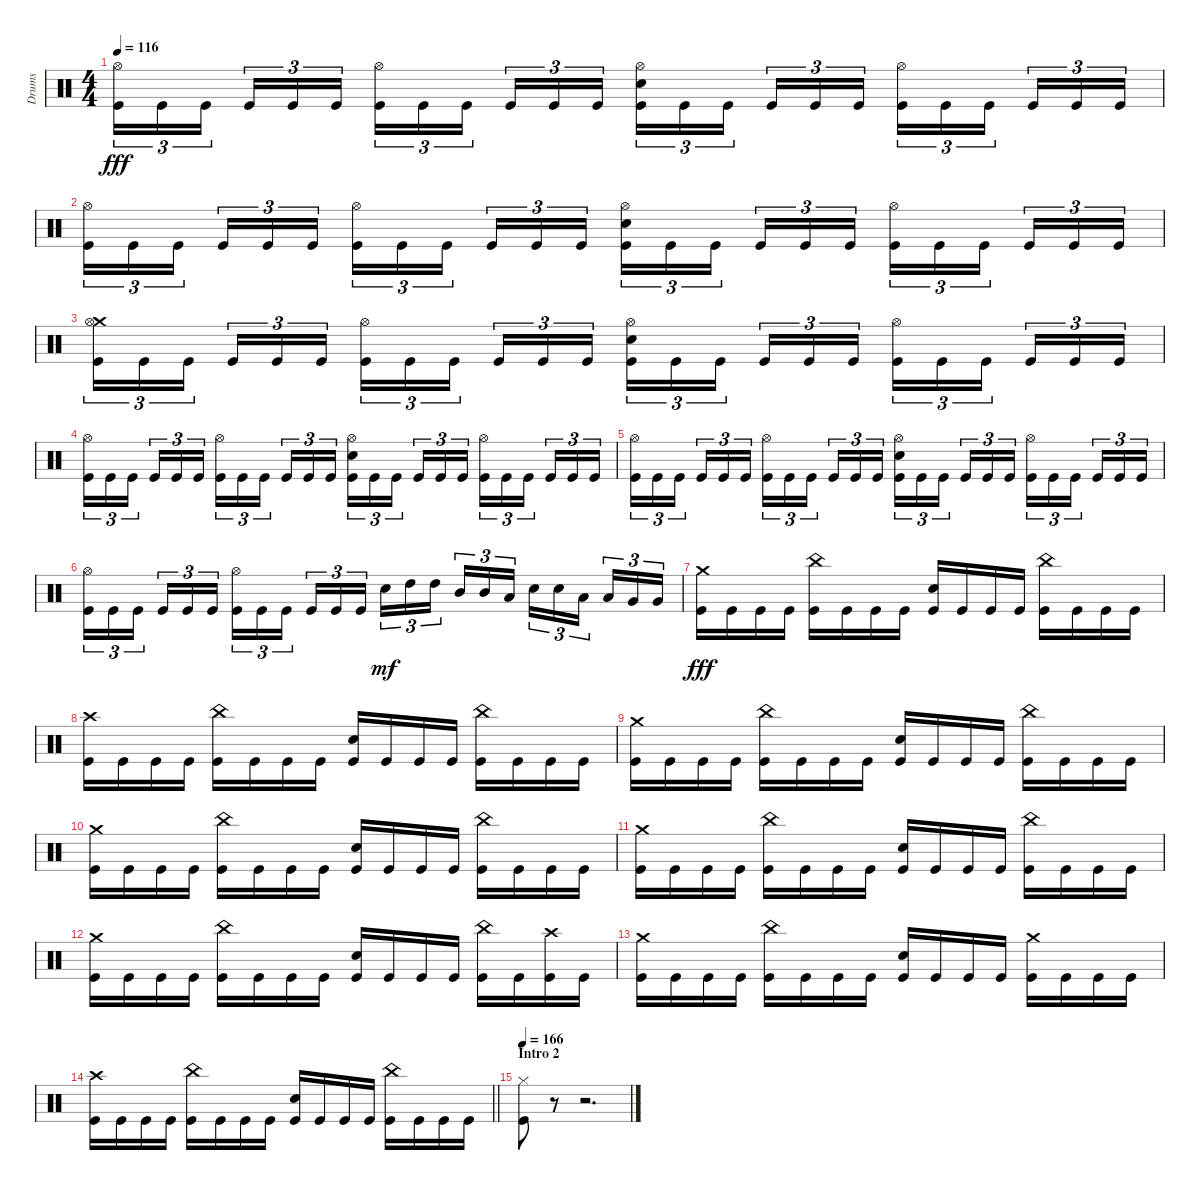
\track ("Drums" "Drums") {instrument percussion}
\staff {score}
\articulation defaults
\ts (4 4)
\tempo 116
\clef neutral
\ks c
("Hi-Hat (open)" "Kick (hit)").16{tu (3 2) dy fff} "Kick (hit)".16{tu (3 2)} "Kick (hit)".16{tu (3 2) beam splitsecondary} "Kick (hit)".16{tu (3 2)} "Kick (hit)".16{tu (3 2)} "Kick (hit)".16{tu (3 2)} ("Hi-Hat (open)" "Kick (hit)").16{tu (3 2)} "Kick (hit)".16{tu (3 2)} "Kick (hit)".16{tu (3 2) beam splitsecondary} "Kick (hit)".16{tu (3 2)} "Kick (hit)".16{tu (3 2)} "Kick (hit)".16{tu (3 2)} ("Hi-Hat (open)" "Electric Snare (hit)" "Kick (hit)").16{tu (3 2)} "Kick (hit)".16{tu (3 2)} "Kick (hit)".16{tu (3 2) beam splitsecondary} "Kick (hit)".16{tu (3 2)} "Kick (hit)".16{tu (3 2)} "Kick (hit)".16{tu (3 2)} ("Hi-Hat (open)" "Kick (hit)").16{tu (3 2)} "Kick (hit)".16{tu (3 2)} "Kick (hit)".16{tu (3 2) beam splitsecondary} "Kick (hit)".16{tu (3 2)} "Kick (hit)".16{tu (3 2)} "Kick (hit)".16{tu (3 2)} |
("Hi-Hat (open)" "Kick (hit)").16{tu (3 2)} "Kick (hit)".16{tu (3 2)} "Kick (hit)".16{tu (3 2) beam splitsecondary} "Kick (hit)".16{tu (3 2)} "Kick (hit)".16{tu (3 2)} "Kick (hit)".16{tu (3 2)} ("Hi-Hat (open)" "Kick (hit)").16{tu (3 2)} "Kick (hit)".16{tu (3 2)} "Kick (hit)".16{tu (3 2) beam splitsecondary} "Kick (hit)".16{tu (3 2)} "Kick (hit)".16{tu (3 2)} "Kick (hit)".16{tu (3 2)} ("Hi-Hat (open)" "Electric Snare (hit)" "Kick (hit)").16{tu (3 2)} "Kick (hit)".16{tu (3 2)} "Kick (hit)".16{tu (3 2) beam splitsecondary} "Kick (hit)".16{tu (3 2)} "Kick (hit)".16{tu (3 2)} "Kick (hit)".16{tu (3 2)} ("Hi-Hat (open)" "Kick (hit)").16{tu (3 2)} "Kick (hit)".16{tu (3 2)} "Kick (hit)".16{tu (3 2) beam splitsecondary} "Kick (hit)".16{tu (3 2)} "Kick (hit)".16{tu (3 2)} "Kick (hit)".16{tu (3 2)} |
("Crash medium (hit)" "Hi-Hat (open)" "Kick (hit)").16{tu (3 2)} "Kick (hit)".16{tu (3 2)} "Kick (hit)".16{tu (3 2) beam splitsecondary} "Kick (hit)".16{tu (3 2)} "Kick (hit)".16{tu (3 2)} "Kick (hit)".16{tu (3 2)} ("Hi-Hat (open)" "Kick (hit)").16{tu (3 2)} "Kick (hit)".16{tu (3 2)} "Kick (hit)".16{tu (3 2) beam splitsecondary} "Kick (hit)".16{tu (3 2)} "Kick (hit)".16{tu (3 2)} "Kick (hit)".16{tu (3 2)} ("Hi-Hat (open)" "Electric Snare (hit)" "Kick (hit)").16{tu (3 2)} "Kick (hit)".16{tu (3 2)} "Kick (hit)".16{tu (3 2) beam splitsecondary} "Kick (hit)".16{tu (3 2)} "Kick (hit)".16{tu (3 2)} "Kick (hit)".16{tu (3 2)} ("Hi-Hat (open)" "Kick (hit)").16{tu (3 2)} "Kick (hit)".16{tu (3 2)} "Kick (hit)".16{tu (3 2) beam splitsecondary} "Kick (hit)".16{tu (3 2)} "Kick (hit)".16{tu (3 2)} "Kick (hit)".16{tu (3 2)} |
("Hi-Hat (open)" "Kick (hit)").16{tu (3 2)} "Kick (hit)".16{tu (3 2)} "Kick (hit)".16{tu (3 2) beam splitsecondary} "Kick (hit)".16{tu (3 2)} "Kick (hit)".16{tu (3 2)} "Kick (hit)".16{tu (3 2)} ("Hi-Hat (open)" "Kick (hit)").16{tu (3 2)} "Kick (hit)".16{tu (3 2)} "Kick (hit)".16{tu (3 2) beam splitsecondary} "Kick (hit)".16{tu (3 2)} "Kick (hit)".16{tu (3 2)} "Kick (hit)".16{tu (3 2)} ("Hi-Hat (open)" "Electric Snare (hit)" "Kick (hit)").16{tu (3 2)} "Kick (hit)".16{tu (3 2)} "Kick (hit)".16{tu (3 2) beam splitsecondary} "Kick (hit)".16{tu (3 2)} "Kick (hit)".16{tu (3 2)} "Kick (hit)".16{tu (3 2)} ("Hi-Hat (open)" "Kick (hit)").16{tu (3 2)} "Kick (hit)".16{tu (3 2)} "Kick (hit)".16{tu (3 2) beam splitsecondary} "Kick (hit)".16{tu (3 2)} "Kick (hit)".16{tu (3 2)} "Kick (hit)".16{tu (3 2)} |
("Hi-Hat (open)" "Kick (hit)").16{tu (3 2)} "Kick (hit)".16{tu (3 2)} "Kick (hit)".16{tu (3 2) beam splitsecondary} "Kick (hit)".16{tu (3 2)} "Kick (hit)".16{tu (3 2)} "Kick (hit)".16{tu (3 2)} ("Hi-Hat (open)" "Kick (hit)").16{tu (3 2)} "Kick (hit)".16{tu (3 2)} "Kick (hit)".16{tu (3 2) beam splitsecondary} "Kick (hit)".16{tu (3 2)} "Kick (hit)".16{tu (3 2)} "Kick (hit)".16{tu (3 2)} ("Hi-Hat (open)" "Electric Snare (hit)" "Kick (hit)").16{tu (3 2)} "Kick (hit)".16{tu (3 2)} "Kick (hit)".16{tu (3 2) beam splitsecondary} "Kick (hit)".16{tu (3 2)} "Kick (hit)".16{tu (3 2)} "Kick (hit)".16{tu (3 2)} ("Hi-Hat (open)" "Kick (hit)").16{tu (3 2)} "Kick (hit)".16{tu (3 2)} "Kick (hit)".16{tu (3 2) beam splitsecondary} "Kick (hit)".16{tu (3 2)} "Kick (hit)".16{tu (3 2)} "Kick (hit)".16{tu (3 2)} |
("Hi-Hat (open)" "Kick (hit)").16{tu (3 2)} "Kick (hit)".16{tu (3 2)} "Kick (hit)".16{tu (3 2) beam splitsecondary} "Kick (hit)".16{tu (3 2)} "Kick (hit)".16{tu (3 2)} "Kick (hit)".16{tu (3 2)} ("Hi-Hat (open)" "Kick (hit)").16{tu (3 2)} "Kick (hit)".16{tu (3 2)} "Kick (hit)".16{tu (3 2) beam splitsecondary} "Kick (hit)".16{tu (3 2)} "Kick (hit)".16{tu (3 2)} "Kick (hit)".16{tu (3 2)} "Electric Snare (hit)".16{tu (3 2) dy mf} "High Tom (hit)".16{tu (3 2)} "High Tom (hit)".16{tu (3 2) beam splitsecondary} "Mid Tom (hit)".16{tu (3 2)} "Mid Tom (hit)".16{tu (3 2)} "Low Tom (hit)".16{tu (3 2)} "Electric Snare (hit)".16{tu (3 2)} "Electric Snare (hit)".16{tu (3 2)} "Low Tom (hit)".16{tu (3 2) beam splitsecondary} "Low Tom (hit)".16{tu (3 2)} "Very Low Tom (hit)".16{tu (3 2)} "Very Low Tom (hit)".16{tu (3 2)} |
("Crash medium (hit)" "Kick (hit)").16{dy fff} "Kick (hit)".16 "Kick (hit)".16 "Kick (hit)".16 ("China (hit)" "Kick (hit)").16 "Kick (hit)".16 "Kick (hit)".16 "Kick (hit)".16 ("Electric Snare (hit)" "Kick (hit)").16 "Kick (hit)".16 "Kick (hit)".16 "Kick (hit)".16 ("China (hit)" "Kick (hit)").16 "Kick (hit)".16 "Kick (hit)".16 "Kick (hit)".16 |
("Crash high (hit)" "Kick (hit)").16 "Kick (hit)".16 "Kick (hit)".16 "Kick (hit)".16 ("China (hit)" "Kick (hit)").16 "Kick (hit)".16 "Kick (hit)".16 "Kick (hit)".16 ("Electric Snare (hit)" "Kick (hit)").16 "Kick (hit)".16 "Kick (hit)".16 "Kick (hit)".16 ("China (hit)" "Kick (hit)").16 "Kick (hit)".16 "Kick (hit)".16 "Kick (hit)".16 |
("Crash medium (hit)" "Kick (hit)").16 "Kick (hit)".16 "Kick (hit)".16 "Kick (hit)".16 ("China (hit)" "Kick (hit)").16 "Kick (hit)".16 "Kick (hit)".16 "Kick (hit)".16 ("Electric Snare (hit)" "Kick (hit)").16 "Kick (hit)".16 "Kick (hit)".16 "Kick (hit)".16 ("China (hit)" "Kick (hit)").16 "Kick (hit)".16 "Kick (hit)".16 "Kick (hit)".16 |
("Crash medium (hit)" "Kick (hit)").16 "Kick (hit)".16 "Kick (hit)".16 "Kick (hit)".16 ("China (hit)" "Kick (hit)").16 "Kick (hit)".16 "Kick (hit)".16 "Kick (hit)".16 ("Electric Snare (hit)" "Kick (hit)").16 "Kick (hit)".16 "Kick (hit)".16 "Kick (hit)".16 ("China (hit)" "Kick (hit)").16 "Kick (hit)".16 "Kick (hit)".16 "Kick (hit)".16 |
("Crash medium (hit)" "Kick (hit)").16 "Kick (hit)".16 "Kick (hit)".16 "Kick (hit)".16 ("China (hit)" "Kick (hit)").16 "Kick (hit)".16 "Kick (hit)".16 "Kick (hit)".16 ("Electric Snare (hit)" "Kick (hit)").16 "Kick (hit)".16 "Kick (hit)".16 "Kick (hit)".16 ("China (hit)" "Kick (hit)").16 "Kick (hit)".16 "Kick (hit)".16 "Kick (hit)".16 |
("Crash medium (hit)" "Kick (hit)").16 "Kick (hit)".16 "Kick (hit)".16 "Kick (hit)".16 ("China (hit)" "Kick (hit)").16 "Kick (hit)".16 "Kick (hit)".16 "Kick (hit)".16 ("Electric Snare (hit)" "Kick (hit)").16 "Kick (hit)".16 "Kick (hit)".16 "Kick (hit)".16 ("China (hit)" "Kick (hit)").16 "Kick (hit)".16 ("Crash high (hit)" "Kick (hit)").16 "Kick (hit)".16 |
("Crash medium (hit)" "Kick (hit)").16 "Kick (hit)".16 "Kick (hit)".16 "Kick (hit)".16 ("China (hit)" "Kick (hit)").16 "Kick (hit)".16 "Kick (hit)".16 "Kick (hit)".16 ("Electric Snare (hit)" "Kick (hit)").16 "Kick (hit)".16 "Kick (hit)".16 "Kick (hit)".16 ("Crash medium (hit)" "Kick (hit)").16 "Kick (hit)".16 "Kick (hit)".16 "Kick (hit)".16 |
\barLineRight lightlight
("Crash high (hit)" "Kick (hit)").16 "Kick (hit)".16 "Kick (hit)".16 "Kick (hit)".16 ("China (hit)" "Kick (hit)").16 "Kick (hit)".16 "Kick (hit)".16 "Kick (hit)".16 ("Electric Snare (hit)" "Kick (hit)").16 "Kick (hit)".16 "Kick (hit)".16 "Kick (hit)".16 ("China (hit)" "Kick (hit)").16 "Kick (hit)".16 "Kick (hit)".16 "Kick (hit)".16 |
\section ("" "Intro 2")
\tempo 166
("Hi-Hat (closed)" "Kick (hit)").8 r.8 r.2{d}
